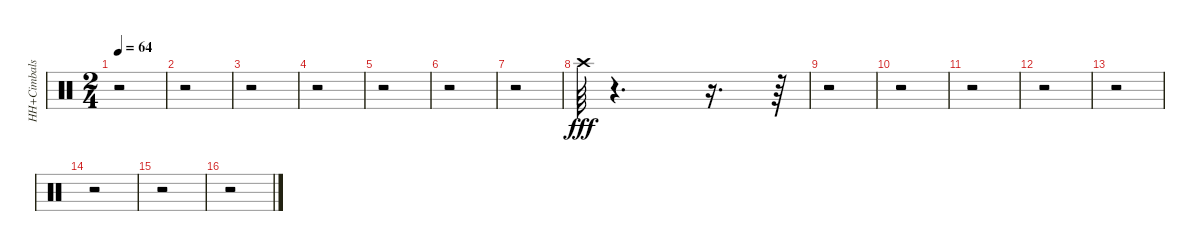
\track ("HH+Cimbals" "HH+Cimbals") {instrument percussion}
\staff {score}
\articulation defaults
\ts (2 4)
\tempo 64
\clef neutral
\ks c
r.2{dy fff} |
r.2 |
r.2 |
r.2 |
r.2 |
r.2 |
r.2 |
"Crash high (hit)".64 r.4{d} r.16{d} r.64 |
r.2 |
r.2 |
r.2 |
r.2 |
r.2 |
r.2 |
r.2 |
r.2
